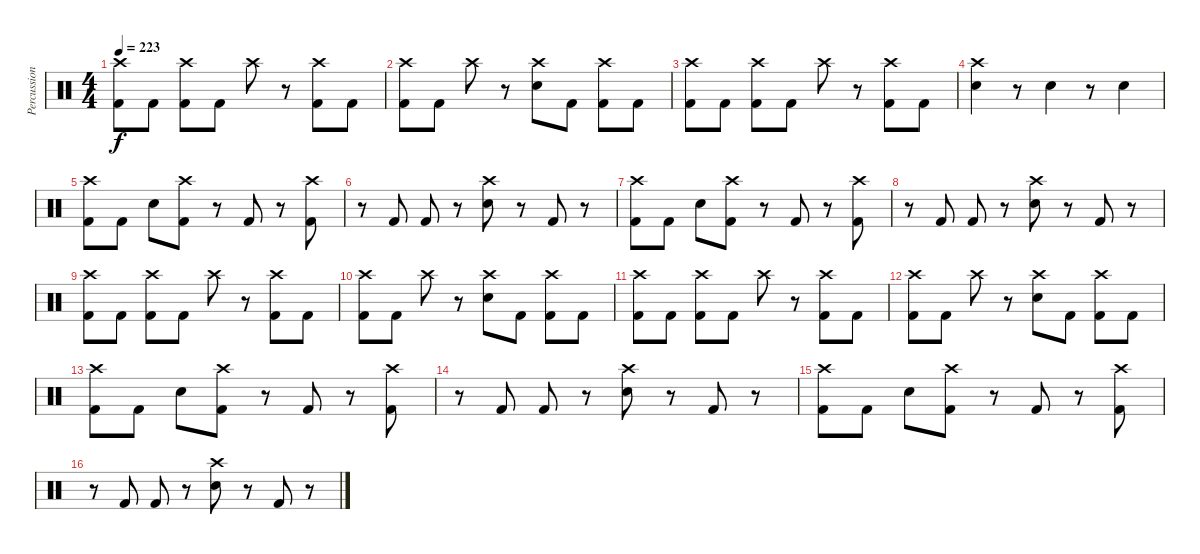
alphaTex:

\track ("Percussion" "Percussion") {instrument percussion}
\staff {score}
\articulation defaults
\ts (4 4)
\tempo 223
\clef neutral
\ks c
("Crash high (hit)" "Kick (hit) 2").8{dy f} "Kick (hit) 2".8 ("Crash high (hit)" "Kick (hit) 2").8 "Kick (hit) 2".8 "Crash high (hit)".8 r.8 ("Crash high (hit)" "Kick (hit) 2").8 "Kick (hit) 2".8 |
("Crash high (hit)" "Kick (hit) 2").8 "Kick (hit) 2".8 "Crash high (hit)".8 r.8 ("Crash high (hit)" "Electric Snare (hit)").8 "Kick (hit) 2".8 ("Crash high (hit)" "Kick (hit) 2").8 "Kick (hit) 2".8 |
("Crash high (hit)" "Kick (hit) 2").8 "Kick (hit) 2".8 ("Crash high (hit)" "Kick (hit) 2").8 "Kick (hit) 2".8 "Crash high (hit)".8 r.8 ("Crash high (hit)" "Kick (hit) 2").8 "Kick (hit) 2".8 |
("Crash high (hit)" "Electric Snare (hit)").4 r.8 "Electric Snare (hit)".4 r.8 "Electric Snare (hit)".4 |
("Crash high (hit)" "Kick (hit) 2").8 "Kick (hit) 2".8 "Electric Snare (hit)".8 ("Crash high (hit)" "Kick (hit) 2").8 r.8 "Kick (hit) 2".8 r.8 ("Crash high (hit)" "Kick (hit) 2").8 |
r.8 "Kick (hit) 2".8 "Kick (hit) 2".8 r.8 ("Crash high (hit)" "Electric Snare (hit)").8 r.8 "Kick (hit) 2".8 r.8 |
("Crash high (hit)" "Kick (hit) 2").8 "Kick (hit) 2".8 "Electric Snare (hit)".8 ("Crash high (hit)" "Kick (hit) 2").8 r.8 "Kick (hit) 2".8 r.8 ("Crash high (hit)" "Kick (hit) 2").8 |
r.8 "Kick (hit) 2".8 "Kick (hit) 2".8 r.8 ("Crash high (hit)" "Electric Snare (hit)").8 r.8 "Kick (hit) 2".8 r.8 |
("Crash high (hit)" "Kick (hit) 2").8 "Kick (hit) 2".8 ("Crash high (hit)" "Kick (hit) 2").8 "Kick (hit) 2".8 "Crash high (hit)".8 r.8 ("Crash high (hit)" "Kick (hit) 2").8 "Kick (hit) 2".8 |
("Crash high (hit)" "Kick (hit) 2").8 "Kick (hit) 2".8 "Crash high (hit)".8 r.8 ("Crash high (hit)" "Electric Snare (hit)").8 "Kick (hit) 2".8 ("Crash high (hit)" "Kick (hit) 2").8 "Kick (hit) 2".8 |
("Crash high (hit)" "Kick (hit) 2").8 "Kick (hit) 2".8 ("Crash high (hit)" "Kick (hit) 2").8 "Kick (hit) 2".8 "Crash high (hit)".8 r.8 ("Crash high (hit)" "Kick (hit) 2").8 "Kick (hit) 2".8 |
("Crash high (hit)" "Kick (hit) 2").8 "Kick (hit) 2".8 "Crash high (hit)".8 r.8 ("Crash high (hit)" "Electric Snare (hit)").8 "Kick (hit) 2".8 ("Crash high (hit)" "Kick (hit) 2").8 "Kick (hit) 2".8 |
("Crash high (hit)" "Kick (hit) 2").8 "Kick (hit) 2".8 "Electric Snare (hit)".8 ("Crash high (hit)" "Kick (hit) 2").8 r.8 "Kick (hit) 2".8 r.8 ("Crash high (hit)" "Kick (hit) 2").8 |
r.8 "Kick (hit) 2".8 "Kick (hit) 2".8 r.8 ("Crash high (hit)" "Electric Snare (hit)").8 r.8 "Kick (hit) 2".8 r.8 |
("Crash high (hit)" "Kick (hit) 2").8 "Kick (hit) 2".8 "Electric Snare (hit)".8 ("Crash high (hit)" "Kick (hit) 2").8 r.8 "Kick (hit) 2".8 r.8 ("Crash high (hit)" "Kick (hit) 2").8 |
r.8 "Kick (hit) 2".8 "Kick (hit) 2".8 r.8 ("Crash high (hit)" "Electric Snare (hit)").8 r.8 "Kick (hit) 2".8 r.8
